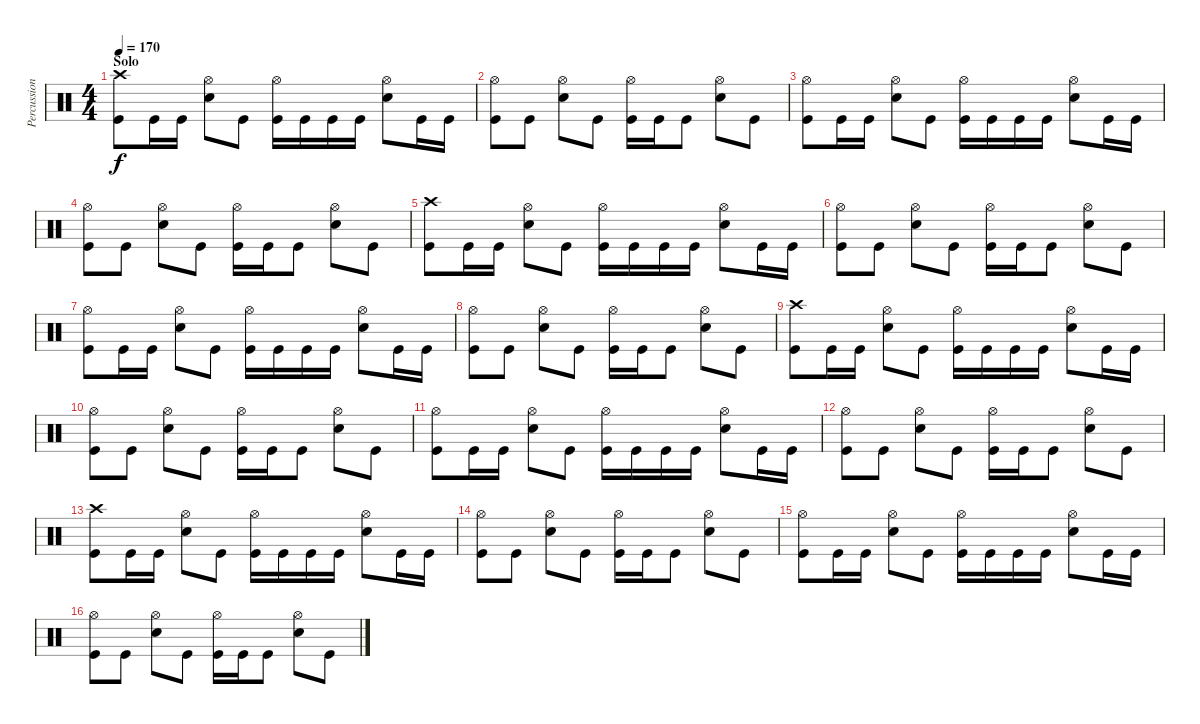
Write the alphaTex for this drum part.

\track ("Percussion" "Percussion") {instrument percussion}
\staff {score}
\articulation defaults
\ts (4 4)
\section ("" "Solo")
\tempo 170
\clef neutral
\ks c
("Crash high (hit)" "Kick (hit)").8{dy f} "Kick (hit)".16 "Kick (hit)".16 ("Hi-Hat (open)" "Snare (hit) 2").8 "Kick (hit)".8 ("Hi-Hat (open)" "Kick (hit)").16 "Kick (hit)".16 "Kick (hit)".16 "Kick (hit)".16 ("Hi-Hat (open)" "Snare (hit) 2").8 "Kick (hit)".16 "Kick (hit)".16 |
("Hi-Hat (open)" "Kick (hit)").8 "Kick (hit)".8 ("Hi-Hat (open)" "Snare (hit) 2").8 "Kick (hit)".8 ("Hi-Hat (open)" "Kick (hit)").16 "Kick (hit)".16 "Kick (hit)".8 ("Hi-Hat (open)" "Snare (hit) 2").8 "Kick (hit)".8 |
("Hi-Hat (open)" "Kick (hit)").8 "Kick (hit)".16 "Kick (hit)".16 ("Hi-Hat (open)" "Snare (hit) 2").8 "Kick (hit)".8 ("Hi-Hat (open)" "Kick (hit)").16 "Kick (hit)".16 "Kick (hit)".16 "Kick (hit)".16 ("Hi-Hat (open)" "Snare (hit) 2").8 "Kick (hit)".16 "Kick (hit)".16 |
("Hi-Hat (open)" "Kick (hit)").8 "Kick (hit)".8 ("Hi-Hat (open)" "Snare (hit) 2").8 "Kick (hit)".8 ("Hi-Hat (open)" "Kick (hit)").16 "Kick (hit)".16 "Kick (hit)".8 ("Hi-Hat (open)" "Snare (hit) 2").8 "Kick (hit)".8 |
("Crash high (hit)" "Kick (hit)").8 "Kick (hit)".16 "Kick (hit)".16 ("Hi-Hat (open)" "Snare (hit) 2").8 "Kick (hit)".8 ("Hi-Hat (open)" "Kick (hit)").16 "Kick (hit)".16 "Kick (hit)".16 "Kick (hit)".16 ("Hi-Hat (open)" "Snare (hit) 2").8 "Kick (hit)".16 "Kick (hit)".16 |
("Hi-Hat (open)" "Kick (hit)").8 "Kick (hit)".8 ("Hi-Hat (open)" "Snare (hit) 2").8 "Kick (hit)".8 ("Hi-Hat (open)" "Kick (hit)").16 "Kick (hit)".16 "Kick (hit)".8 ("Hi-Hat (open)" "Snare (hit) 2").8 "Kick (hit)".8 |
("Hi-Hat (open)" "Kick (hit)").8 "Kick (hit)".16 "Kick (hit)".16 ("Hi-Hat (open)" "Snare (hit) 2").8 "Kick (hit)".8 ("Hi-Hat (open)" "Kick (hit)").16 "Kick (hit)".16 "Kick (hit)".16 "Kick (hit)".16 ("Hi-Hat (open)" "Snare (hit) 2").8 "Kick (hit)".16 "Kick (hit)".16 |
("Hi-Hat (open)" "Kick (hit)").8 "Kick (hit)".8 ("Hi-Hat (open)" "Snare (hit) 2").8 "Kick (hit)".8 ("Hi-Hat (open)" "Kick (hit)").16 "Kick (hit)".16 "Kick (hit)".8 ("Hi-Hat (open)" "Snare (hit) 2").8 "Kick (hit)".8 |
("Crash high (hit)" "Kick (hit)").8 "Kick (hit)".16 "Kick (hit)".16 ("Hi-Hat (open)" "Snare (hit) 2").8 "Kick (hit)".8 ("Hi-Hat (open)" "Kick (hit)").16 "Kick (hit)".16 "Kick (hit)".16 "Kick (hit)".16 ("Hi-Hat (open)" "Snare (hit) 2").8 "Kick (hit)".16 "Kick (hit)".16 |
("Hi-Hat (open)" "Kick (hit)").8 "Kick (hit)".8 ("Hi-Hat (open)" "Snare (hit) 2").8 "Kick (hit)".8 ("Hi-Hat (open)" "Kick (hit)").16 "Kick (hit)".16 "Kick (hit)".8 ("Hi-Hat (open)" "Snare (hit) 2").8 "Kick (hit)".8 |
("Hi-Hat (open)" "Kick (hit)").8 "Kick (hit)".16 "Kick (hit)".16 ("Hi-Hat (open)" "Snare (hit) 2").8 "Kick (hit)".8 ("Hi-Hat (open)" "Kick (hit)").16 "Kick (hit)".16 "Kick (hit)".16 "Kick (hit)".16 ("Hi-Hat (open)" "Snare (hit) 2").8 "Kick (hit)".16 "Kick (hit)".16 |
("Hi-Hat (open)" "Kick (hit)").8 "Kick (hit)".8 ("Hi-Hat (open)" "Snare (hit) 2").8 "Kick (hit)".8 ("Hi-Hat (open)" "Kick (hit)").16 "Kick (hit)".16 "Kick (hit)".8 ("Hi-Hat (open)" "Snare (hit) 2").8 "Kick (hit)".8 |
("Crash high (hit)" "Kick (hit)").8 "Kick (hit)".16 "Kick (hit)".16 ("Hi-Hat (open)" "Snare (hit) 2").8 "Kick (hit)".8 ("Hi-Hat (open)" "Kick (hit)").16 "Kick (hit)".16 "Kick (hit)".16 "Kick (hit)".16 ("Hi-Hat (open)" "Snare (hit) 2").8 "Kick (hit)".16 "Kick (hit)".16 |
("Hi-Hat (open)" "Kick (hit)").8 "Kick (hit)".8 ("Hi-Hat (open)" "Snare (hit) 2").8 "Kick (hit)".8 ("Hi-Hat (open)" "Kick (hit)").16 "Kick (hit)".16 "Kick (hit)".8 ("Hi-Hat (open)" "Snare (hit) 2").8 "Kick (hit)".8 |
("Hi-Hat (open)" "Kick (hit)").8 "Kick (hit)".16 "Kick (hit)".16 ("Hi-Hat (open)" "Snare (hit) 2").8 "Kick (hit)".8 ("Hi-Hat (open)" "Kick (hit)").16 "Kick (hit)".16 "Kick (hit)".16 "Kick (hit)".16 ("Hi-Hat (open)" "Snare (hit) 2").8 "Kick (hit)".16 "Kick (hit)".16 |
("Hi-Hat (open)" "Kick (hit)").8 "Kick (hit)".8 ("Hi-Hat (open)" "Snare (hit) 2").8 "Kick (hit)".8 ("Hi-Hat (open)" "Kick (hit)").16 "Kick (hit)".16 "Kick (hit)".8 ("Hi-Hat (open)" "Snare (hit) 2").8 "Kick (hit)".8
